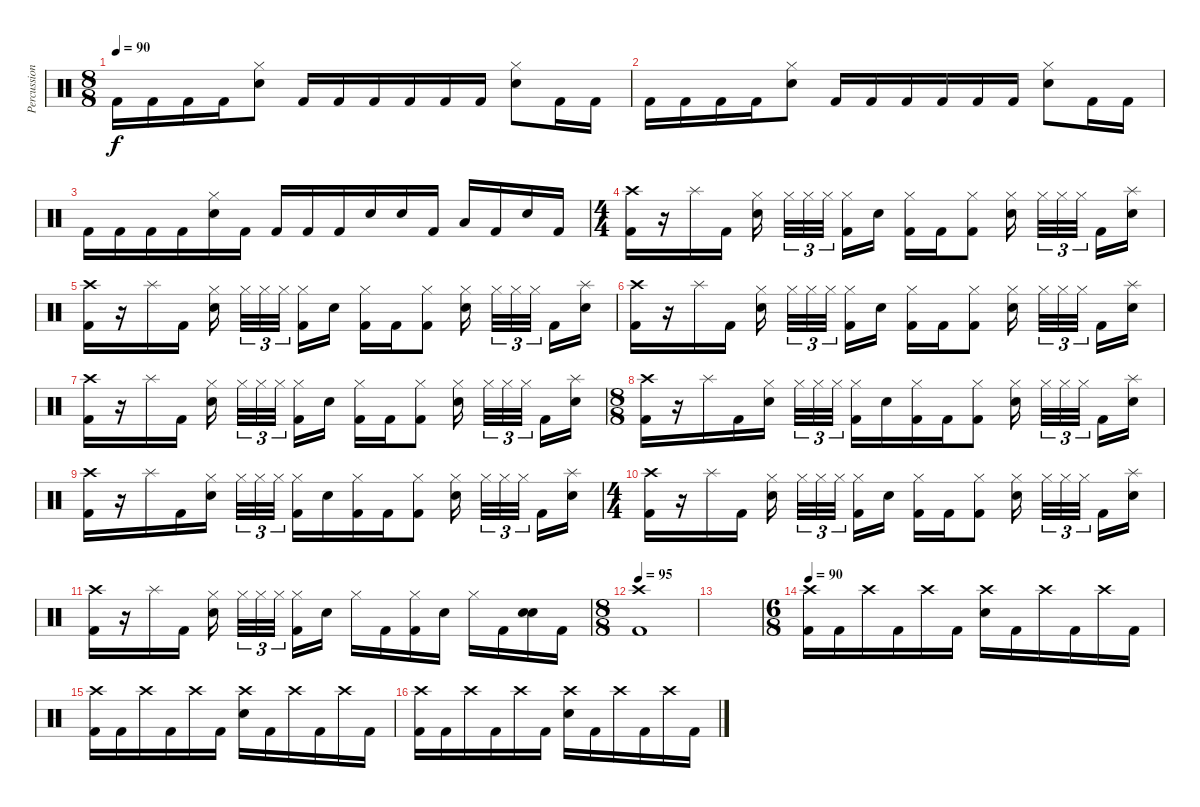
\track ("Percussion" "Percussion") {instrument percussion}
\staff {score}
\articulation defaults
\ts (8 8)
\tempo 90
\clef neutral
\ks c "Kick (hit) 2".16{dy f} "Kick (hit) 2".16 "Kick (hit) 2".16 "Kick (hit) 2".16
("Hi-Hat (closed)" "Electric Snare (hit)").8 "Kick (hit) 2".16 "Kick (hit) 2".16 "Kick (hit) 2".16 "Kick (hit) 2".16 "Kick (hit) 2".16 "Kick (hit) 2".16 ("Hi-Hat (closed)" "Electric Snare (hit)").8 "Kick (hit) 2".16 "Kick (hit) 2".16 |
"Kick (hit) 2".16 "Kick (hit) 2".16 "Kick (hit) 2".16 "Kick (hit) 2".16 ("Hi-Hat (closed)" "Electric Snare (hit)").8 "Kick (hit) 2".16 "Kick (hit) 2".16 "Kick (hit) 2".16 "Kick (hit) 2".16 "Kick (hit) 2".16 "Kick (hit) 2".16 ("Hi-Hat (closed)" "Electric Snare (hit)").8 "Kick (hit) 2".16 "Kick (hit) 2".16 |
"Kick (hit) 2".16 "Kick (hit) 2".16 "Kick (hit) 2".16 "Kick (hit) 2".16 ("Hi-Hat (closed)" "Electric Snare (hit)").16 "Kick (hit) 2".16 "Kick (hit) 2".16 "Kick (hit) 2".16 "Kick (hit) 2".16 "Electric Snare (hit)".16 "Electric Snare (hit)".16 "Kick (hit) 2".16 "Low Floor Tom (hit)".16 "Kick (hit) 2".16 "Electric Snare (hit)".16 "Kick (hit) 2".16 |
\ts (4 4)
("Crash high (hit)" "Kick (hit) 2").16 r.16 "Splash (hit)".16 "Kick (hit) 2".16 ("Hi-Hat (closed)" "Electric Snare (hit)").16{beam splitsecondary} "Hi-Hat (closed)".32{tu (3 2)} "Hi-Hat (closed)".32{tu (3 2)} "Hi-Hat (closed)".32{tu (3 2) beam splitsecondary} ("Hi-Hat (closed)" "Kick (hit) 2").16 "Electric Snare (hit)".16 ("Hi-Hat (closed)" "Kick (hit) 2").16 "Kick (hit) 2".16 ("Hi-Hat (closed)" "Kick (hit) 2").8 ("Hi-Hat (closed)" "Electric Snare (hit)").16{beam splitsecondary} "Hi-Hat (closed)".32{tu (3 2)} "Hi-Hat (closed)".32{tu (3 2)} "Hi-Hat (closed)".32{tu (3 2) beam splitsecondary} "Kick (hit) 2".16 ("Splash (hit)" "Electric Snare (hit)").16 |
("Crash high (hit)" "Kick (hit) 2").16 r.16 "Splash (hit)".16 "Kick (hit) 2".16 ("Hi-Hat (closed)" "Electric Snare (hit)").16{beam splitsecondary} "Hi-Hat (closed)".32{tu (3 2)} "Hi-Hat (closed)".32{tu (3 2)} "Hi-Hat (closed)".32{tu (3 2) beam splitsecondary} ("Hi-Hat (closed)" "Kick (hit) 2").16 "Electric Snare (hit)".16 ("Hi-Hat (closed)" "Kick (hit) 2").16 "Kick (hit) 2".16 ("Hi-Hat (closed)" "Kick (hit) 2").8 ("Hi-Hat (closed)" "Electric Snare (hit)").16{beam splitsecondary} "Hi-Hat (closed)".32{tu (3 2)} "Hi-Hat (closed)".32{tu (3 2)} "Hi-Hat (closed)".32{tu (3 2) beam splitsecondary} "Kick (hit) 2".16 ("Splash (hit)" "Electric Snare (hit)").16 |
("Crash high (hit)" "Kick (hit) 2").16 r.16 "Splash (hit)".16 "Kick (hit) 2".16 ("Hi-Hat (closed)" "Electric Snare (hit)").16{beam splitsecondary} "Hi-Hat (closed)".32{tu (3 2)} "Hi-Hat (closed)".32{tu (3 2)} "Hi-Hat (closed)".32{tu (3 2) beam splitsecondary} ("Hi-Hat (closed)" "Kick (hit) 2").16 "Electric Snare (hit)".16 ("Hi-Hat (closed)" "Kick (hit) 2").16 "Kick (hit) 2".16 ("Hi-Hat (closed)" "Kick (hit) 2").8 ("Hi-Hat (closed)" "Electric Snare (hit)").16{beam splitsecondary} "Hi-Hat (closed)".32{tu (3 2)} "Hi-Hat (closed)".32{tu (3 2)} "Hi-Hat (closed)".32{tu (3 2) beam splitsecondary} "Kick (hit) 2".16 ("Splash (hit)" "Electric Snare (hit)").16 |
("Crash high (hit)" "Kick (hit) 2").16 r.16 "Splash (hit)".16 "Kick (hit) 2".16 ("Hi-Hat (closed)" "Electric Snare (hit)").16{beam splitsecondary} "Hi-Hat (closed)".32{tu (3 2)} "Hi-Hat (closed)".32{tu (3 2)} "Hi-Hat (closed)".32{tu (3 2) beam splitsecondary} ("Hi-Hat (closed)" "Kick (hit) 2").16 "Electric Snare (hit)".16 ("Hi-Hat (closed)" "Kick (hit) 2").16 "Kick (hit) 2".16 ("Hi-Hat (closed)" "Kick (hit) 2").8 ("Hi-Hat (closed)" "Electric Snare (hit)").16{beam splitsecondary} "Hi-Hat (closed)".32{tu (3 2)} "Hi-Hat (closed)".32{tu (3 2)} "Hi-Hat (closed)".32{tu (3 2) beam splitsecondary} "Kick (hit) 2".16 ("Splash (hit)" "Electric Snare (hit)").16 |
\ts (8 8)
("Crash high (hit)" "Kick (hit) 2").16 r.16 "Splash (hit)".16 "Kick (hit) 2".16 ("Hi-Hat (closed)" "Electric Snare (hit)").16{beam splitsecondary} "Hi-Hat (closed)".32{tu (3 2)} "Hi-Hat (closed)".32{tu (3 2)} "Hi-Hat (closed)".32{tu (3 2)} ("Hi-Hat (closed)" "Kick (hit) 2").16 "Electric Snare (hit)".16 ("Hi-Hat (closed)" "Kick (hit) 2").16 "Kick (hit) 2".16 ("Hi-Hat (closed)" "Kick (hit) 2").8 ("Hi-Hat (closed)" "Electric Snare (hit)").16{beam splitsecondary} "Hi-Hat (closed)".32{tu (3 2)} "Hi-Hat (closed)".32{tu (3 2)} "Hi-Hat (closed)".32{tu (3 2)} "Kick (hit) 2".16 ("Splash (hit)" "Electric Snare (hit)").16 |
("Crash high (hit)" "Kick (hit) 2").16 r.16 "Splash (hit)".16 "Kick (hit) 2".16 ("Hi-Hat (closed)" "Electric Snare (hit)").16{beam splitsecondary} "Hi-Hat (closed)".32{tu (3 2)} "Hi-Hat (closed)".32{tu (3 2)} "Hi-Hat (closed)".32{tu (3 2)} ("Hi-Hat (closed)" "Kick (hit) 2").16 "Electric Snare (hit)".16 ("Hi-Hat (closed)" "Kick (hit) 2").16 "Kick (hit) 2".16 ("Hi-Hat (closed)" "Kick (hit) 2").8 ("Hi-Hat (closed)" "Electric Snare (hit)").16{beam splitsecondary} "Hi-Hat (closed)".32{tu (3 2)} "Hi-Hat (closed)".32{tu (3 2)} "Hi-Hat (closed)".32{tu (3 2)} "Kick (hit) 2".16 ("Splash (hit)" "Electric Snare (hit)").16 |
\ts (4 4)
("Crash high (hit)" "Kick (hit) 2").16 r.16 "Splash (hit)".16 "Kick (hit) 2".16 ("Hi-Hat (closed)" "Electric Snare (hit)").16{beam splitsecondary} "Hi-Hat (closed)".32{tu (3 2)} "Hi-Hat (closed)".32{tu (3 2)} "Hi-Hat (closed)".32{tu (3 2)} ("Hi-Hat (closed)" "Kick (hit) 2").16 "Electric Snare (hit)".16 ("Hi-Hat (closed)" "Kick (hit) 2").16 "Kick (hit) 2".16 ("Hi-Hat (closed)" "Kick (hit) 2").8 ("Hi-Hat (closed)" "Electric Snare (hit)").16{beam splitsecondary} "Hi-Hat (closed)".32{tu (3 2)} "Hi-Hat (closed)".32{tu (3 2)} "Hi-Hat (closed)".32{tu (3 2)} "Kick (hit) 2".16 ("Splash (hit)" "Electric Snare (hit)").16 |
("Crash high (hit)" "Kick (hit) 2").16 r.16 "Splash (hit)".16 "Kick (hit) 2".16 ("Hi-Hat (closed)" "Electric Snare (hit)").16{beam splitsecondary} "Hi-Hat (closed)".32{tu (3 2)} "Hi-Hat (closed)".32{tu (3 2)} "Hi-Hat (closed)".32{tu (3 2)} ("Hi-Hat (closed)" "Kick (hit) 2").16 "Electric Snare (hit)".16 "Hi-Hat (closed)".16 "Kick (hit) 2".16 ("Hi-Hat (closed)" "Kick (hit) 2").16 "Electric Snare (hit)".16 "Hi-Hat (closed)".16 "Kick (hit) 2".16 ("Electric Snare (hit)" "Electric Snare (hit)").16 "Kick (hit) 2".16 |
\ts (8 8)
\tempo 95
("Crash high (hit)" "Kick (hit) 2").1 |
|
\ts (6 8)
\tempo 90
("Crash high (hit)" "Kick (hit) 2").16 "Kick (hit) 2".16 "Crash high (hit)".16 "Kick (hit) 2".16 "Crash high (hit)".16 "Kick (hit) 2".16 ("Crash high (hit)" "Electric Snare (hit)").16 "Kick (hit) 2".16 "Crash high (hit)".16 "Kick (hit) 2".16 "Crash high (hit)".16 "Kick (hit) 2".16 |
("Crash high (hit)" "Kick (hit) 2").16 "Kick (hit) 2".16 "Crash high (hit)".16 "Kick (hit) 2".16 "Crash high (hit)".16 "Kick (hit) 2".16 ("Crash high (hit)" "Electric Snare (hit)").16 "Kick (hit) 2".16 "Crash high (hit)".16 "Kick (hit) 2".16 "Crash high (hit)".16 "Kick (hit) 2".16 |
("Crash high (hit)" "Kick (hit) 2").16 "Kick (hit) 2".16 "Crash high (hit)".16 "Kick (hit) 2".16 "Crash high (hit)".16 "Kick (hit) 2".16 ("Crash high (hit)" "Electric Snare (hit)").16 "Kick (hit) 2".16 "Crash high (hit)".16 "Kick (hit) 2".16 "Crash high (hit)".16 "Kick (hit) 2".16
